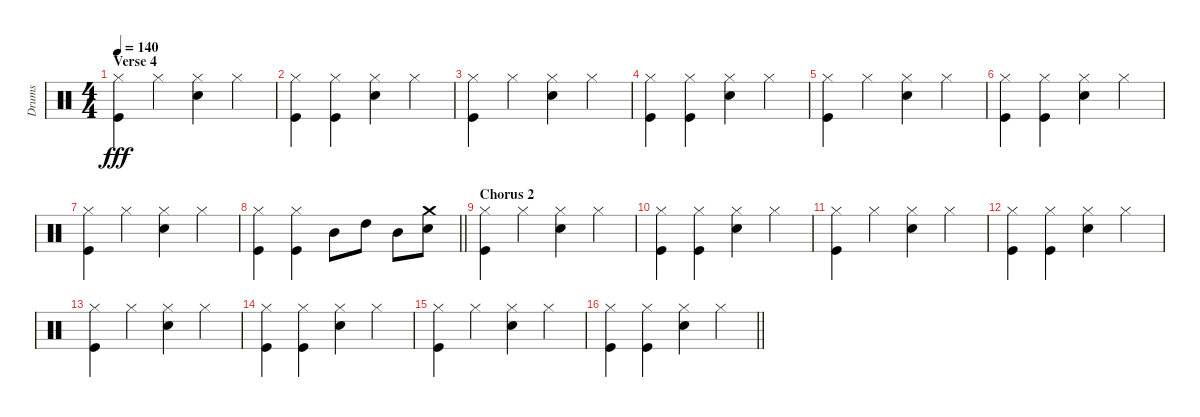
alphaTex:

\track ("Drums" "Drums") {instrument percussion}
\staff {score}
\articulation defaults
\ts (4 4)
\section ("" "Verse 4")
\tempo 140
\clef neutral
\ks c
("Hi-Hat (closed)" "Kick (hit)").4{dy fff} "Hi-Hat (closed)".4 ("Hi-Hat (closed)" "Snare (hit) 2").4 "Hi-Hat (closed)".4 |
("Hi-Hat (closed)" "Kick (hit)").4 ("Hi-Hat (closed)" "Kick (hit)").4 ("Hi-Hat (closed)" "Snare (hit) 2").4 "Hi-Hat (closed)".4 |
("Hi-Hat (closed)" "Kick (hit)").4 "Hi-Hat (closed)".4 ("Hi-Hat (closed)" "Snare (hit) 2").4 "Hi-Hat (closed)".4 |
("Hi-Hat (closed)" "Kick (hit)").4 ("Hi-Hat (closed)" "Kick (hit)").4 ("Hi-Hat (closed)" "Snare (hit) 2").4 "Hi-Hat (closed)".4 |
("Hi-Hat (closed)" "Kick (hit)").4 "Hi-Hat (closed)".4 ("Hi-Hat (closed)" "Snare (hit) 2").4 "Hi-Hat (closed)".4 |
("Hi-Hat (closed)" "Kick (hit)").4 ("Hi-Hat (closed)" "Kick (hit)").4 ("Hi-Hat (closed)" "Snare (hit) 2").4 "Hi-Hat (closed)".4 |
("Hi-Hat (closed)" "Kick (hit)").4 "Hi-Hat (closed)".4 ("Hi-Hat (closed)" "Snare (hit) 2").4 "Hi-Hat (closed)".4 |
\barLineRight lightlight
("Hi-Hat (closed)" "Kick (hit)").4 ("Hi-Hat (closed)" "Kick (hit)").4 "Mid Tom (hit)".8 "High Tom (hit)".8 "Mid Tom (hit)".8 ("Crash medium (hit)" "Snare (hit) 2").8 |
\section ("" "Chorus 2")
("Hi-Hat (closed)" "Kick (hit)").4 "Hi-Hat (closed)".4 ("Hi-Hat (closed)" "Snare (hit) 2").4 "Hi-Hat (closed)".4 |
("Hi-Hat (closed)" "Kick (hit)").4 ("Hi-Hat (closed)" "Kick (hit)").4 ("Hi-Hat (closed)" "Snare (hit) 2").4 "Hi-Hat (closed)".4 |
("Hi-Hat (closed)" "Kick (hit)").4 "Hi-Hat (closed)".4 ("Hi-Hat (closed)" "Snare (hit) 2").4 "Hi-Hat (closed)".4 |
("Hi-Hat (closed)" "Kick (hit)").4 ("Hi-Hat (closed)" "Kick (hit)").4 ("Hi-Hat (closed)" "Snare (hit) 2").4 "Hi-Hat (closed)".4 |
("Hi-Hat (closed)" "Kick (hit)").4 "Hi-Hat (closed)".4 ("Hi-Hat (closed)" "Snare (hit) 2").4 "Hi-Hat (closed)".4 |
("Hi-Hat (closed)" "Kick (hit)").4 ("Hi-Hat (closed)" "Kick (hit)").4 ("Hi-Hat (closed)" "Snare (hit) 2").4 "Hi-Hat (closed)".4 |
("Hi-Hat (closed)" "Kick (hit)").4 "Hi-Hat (closed)".4 ("Hi-Hat (closed)" "Snare (hit) 2").4 "Hi-Hat (closed)".4 |
\barLineRight lightlight
("Hi-Hat (closed)" "Kick (hit)").4 ("Hi-Hat (closed)" "Kick (hit)").4 ("Hi-Hat (closed)" "Snare (hit) 2").4 "Hi-Hat (closed)".4
